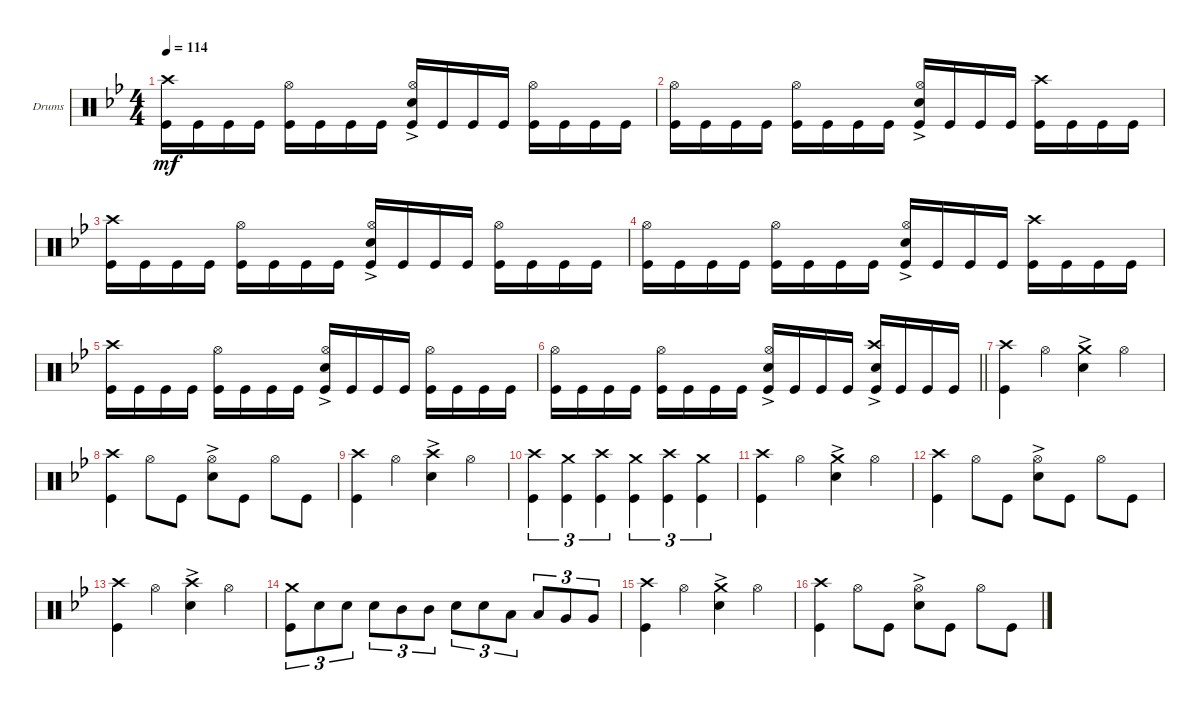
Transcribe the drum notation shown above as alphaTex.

\bracketExtendMode groupsimilarinstruments
\firstSystemTrackNameOrientation horizontal
\otherSystemsTrackNameOrientation horizontal
\track ("Drumkit" "Drums") {instrument percussion}
\staff {score}
\articulation defaults
\ts (4 4)
\tempo 114
\clef neutral
\ks gminor
("Kick (hit)" "Crash high (hit)").16{dy mf} "Kick (hit)".16 "Kick (hit)".16 "Kick (hit)".16 ("Kick (hit)" "Hi-Hat (open)").16 "Kick (hit)".16 "Kick (hit)".16 "Kick (hit)".16 ("Kick (hit)" "Snare (hit) 2"{ac} "Hi-Hat (open)").16 "Kick (hit)".16 "Kick (hit)".16 "Kick (hit)".16 ("Kick (hit)" "Hi-Hat (open)").16 "Kick (hit)".16 "Kick (hit)".16 "Kick (hit)".16 |
("Kick (hit)" "Hi-Hat (open)").16 "Kick (hit)".16 "Kick (hit)".16 "Kick (hit)".16 ("Kick (hit)" "Hi-Hat (open)").16 "Kick (hit)".16 "Kick (hit)".16 "Kick (hit)".16 ("Kick (hit)" "Snare (hit) 2"{ac} "Hi-Hat (open)").16 "Kick (hit)".16 "Kick (hit)".16 "Kick (hit)".16 ("Kick (hit)" "Crash high (hit)").16 "Kick (hit)".16 "Kick (hit)".16 "Kick (hit)".16 |
("Kick (hit)" "Crash high (hit)").16 "Kick (hit)".16 "Kick (hit)".16 "Kick (hit)".16 ("Kick (hit)" "Hi-Hat (open)").16 "Kick (hit)".16 "Kick (hit)".16 "Kick (hit)".16 ("Kick (hit)" "Snare (hit) 2"{ac} "Hi-Hat (open)").16 "Kick (hit)".16 "Kick (hit)".16 "Kick (hit)".16 ("Kick (hit)" "Hi-Hat (open)").16 "Kick (hit)".16 "Kick (hit)".16 "Kick (hit)".16 |
("Kick (hit)" "Hi-Hat (open)").16 "Kick (hit)".16 "Kick (hit)".16 "Kick (hit)".16 ("Kick (hit)" "Hi-Hat (open)").16 "Kick (hit)".16 "Kick (hit)".16 "Kick (hit)".16 ("Kick (hit)" "Snare (hit) 2"{ac} "Hi-Hat (open)").16 "Kick (hit)".16 "Kick (hit)".16 "Kick (hit)".16 ("Kick (hit)" "Crash high (hit)").16 "Kick (hit)".16 "Kick (hit)".16 "Kick (hit)".16 |
("Kick (hit)" "Crash high (hit)").16 "Kick (hit)".16 "Kick (hit)".16 "Kick (hit)".16 ("Kick (hit)" "Hi-Hat (open)").16 "Kick (hit)".16 "Kick (hit)".16 "Kick (hit)".16 ("Kick (hit)" "Snare (hit) 2"{ac} "Hi-Hat (open)").16 "Kick (hit)".16 "Kick (hit)".16 "Kick (hit)".16 ("Kick (hit)" "Hi-Hat (open)").16 "Kick (hit)".16 "Kick (hit)".16 "Kick (hit)".16 |
\barLineRight lightlight
("Kick (hit)" "Hi-Hat (open)").16 "Kick (hit)".16 "Kick (hit)".16 "Kick (hit)".16 ("Kick (hit)" "Hi-Hat (open)").16 "Kick (hit)".16 "Kick (hit)".16 "Kick (hit)".16 ("Kick (hit)" "Snare (hit) 2"{ac} "Hi-Hat (open)").16 "Kick (hit)".16 "Kick (hit)".16 "Kick (hit)".16 ("Kick (hit)" "Crash high (hit)" "Snare (hit) 2"{ac}).16 "Kick (hit)".16 "Kick (hit)".16 "Kick (hit)".16 |
("Kick (hit)" "Crash high (hit)").4 "Hi-Hat (open)".4 ("Snare (hit) 2"{ac} "Crash medium (hit)").4 "Hi-Hat (open)".4 |
("Kick (hit)" "Crash high (hit)").4 "Hi-Hat (open)".8 "Kick (hit)".8 ("Snare (hit) 2"{ac} "Hi-Hat (open)").8 "Kick (hit)".8 "Hi-Hat (open)".8 "Kick (hit)".8 |
("Kick (hit)" "Crash high (hit)").4 "Hi-Hat (open)".4 ("Snare (hit) 2"{ac} "Crash high (hit)").4 "Hi-Hat (open)".4 |
("Kick (hit)" "Crash high (hit)").4{tu (3 2)} ("Kick (hit)" "Crash medium (hit)").4{tu (3 2)} ("Kick (hit)" "Crash high (hit)").4{tu (3 2)} ("Kick (hit)" "Crash medium (hit)").4{tu (3 2)} ("Kick (hit)" "Crash high (hit)").4{tu (3 2)} ("Kick (hit)" "Crash medium (hit)").4{tu (3 2)} |
("Kick (hit)" "Crash high (hit)").4 "Hi-Hat (open)".4 ("Snare (hit) 2"{ac} "Crash medium (hit)").4 "Hi-Hat (open)".4 |
("Kick (hit)" "Crash high (hit)").4 "Hi-Hat (open)".8 "Kick (hit)".8 ("Snare (hit) 2"{ac} "Hi-Hat (open)").8 "Kick (hit)".8 "Hi-Hat (open)".8 "Kick (hit)".8 |
("Kick (hit)" "Crash high (hit)").4 "Hi-Hat (open)".4 ("Snare (hit) 2"{ac} "Crash high (hit)").4 "Hi-Hat (open)".4 |
("Crash medium (hit)" "Kick (hit)").8{tu (3 2)} "Snare (hit) 2".8{tu (3 2)} "Snare (hit) 2".8{tu (3 2)} "Snare (hit) 2".8{tu (3 2)} "Mid Tom (hit)".8{tu (3 2)} "Mid Tom (hit)".8{tu (3 2)} "Snare (hit) 2".8{tu (3 2)} "Snare (hit) 2".8{tu (3 2)} "Low Tom (hit)".8{tu (3 2)} "Low Tom (hit)".8{tu (3 2)} "Very Low Tom (hit)".8{tu (3 2)} "Very Low Tom (hit)".8{tu (3 2)} |
("Kick (hit)" "Crash high (hit)").4 "Hi-Hat (open)".4 ("Snare (hit) 2"{ac} "Crash medium (hit)").4 "Hi-Hat (open)".4 |
("Kick (hit)" "Crash high (hit)").4 "Hi-Hat (open)".8 "Kick (hit)".8 ("Snare (hit) 2"{ac} "Hi-Hat (open)").8 "Kick (hit)".8 "Hi-Hat (open)".8 "Kick (hit)".8
